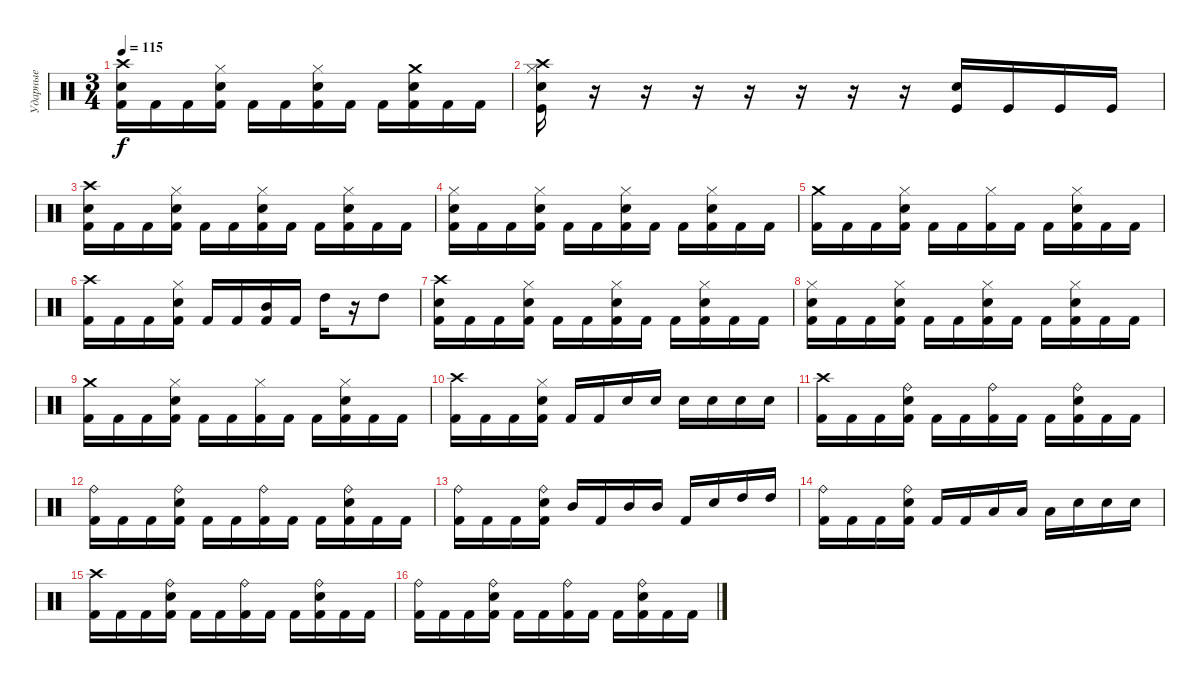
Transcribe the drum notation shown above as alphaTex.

\track ("Ударные" "Ударные") {instrument percussion}
\staff {score}
\articulation defaults
\ts (3 4)
\tempo 115
\clef neutral
\ks c
("Crash high (hit)" "Electric Snare (hit)" "Kick (hit) 2").16{dy f} "Kick (hit) 2".16 "Kick (hit) 2".16 ("Hi-Hat (closed)" "Electric Snare (hit)" "Kick (hit) 2").16 "Kick (hit) 2".16 "Kick (hit) 2".16 ("Hi-Hat (closed)" "Electric Snare (hit)" "Kick (hit) 2").16 "Kick (hit) 2".16 "Kick (hit) 2".16 ("Crash medium (hit)" "Electric Snare (hit)" "Kick (hit) 2").16 "Kick (hit) 2".16 "Kick (hit) 2".16 |
("Hi-Hat (closed)" "Crash high (hit)" "Electric Snare (hit)" "Kick (hit)").16 r.16 r.16 r.16 r.16 r.16 r.16 r.16 ("Electric Snare (hit)" "Kick (hit)").16 "Kick (hit)".16 "Kick (hit)".16 "Kick (hit)".16 |
("Crash high (hit)" "Electric Snare (hit)" "Kick (hit) 2").16 "Kick (hit) 2".16 "Kick (hit) 2".16 ("Hi-Hat (closed)" "Electric Snare (hit)" "Kick (hit) 2").16 "Kick (hit) 2".16 "Kick (hit) 2".16 ("Hi-Hat (closed)" "Electric Snare (hit)" "Kick (hit) 2").16 "Kick (hit) 2".16 "Kick (hit) 2".16 ("Hi-Hat (closed)" "Electric Snare (hit)" "Kick (hit) 2").16 "Kick (hit) 2".16 "Kick (hit) 2".16 |
("Hi-Hat (closed)" "Electric Snare (hit)" "Kick (hit) 2").16 "Kick (hit) 2".16 "Kick (hit) 2".16 ("Hi-Hat (closed)" "Electric Snare (hit)" "Kick (hit) 2").16 "Kick (hit) 2".16 "Kick (hit) 2".16 ("Hi-Hat (closed)" "Electric Snare (hit)" "Kick (hit) 2").16 "Kick (hit) 2".16 "Kick (hit) 2".16 ("Hi-Hat (closed)" "Electric Snare (hit)" "Kick (hit) 2").16 "Kick (hit) 2".16 "Kick (hit) 2".16 |
("Crash medium (hit)" "Kick (hit) 2").16 "Kick (hit) 2".16 "Kick (hit) 2".16 ("Hi-Hat (closed)" "Electric Snare (hit)" "Kick (hit) 2").16 "Kick (hit) 2".16 "Kick (hit) 2".16 ("Hi-Hat (closed)" "Kick (hit) 2").16 "Kick (hit) 2".16 "Kick (hit) 2".16 ("Hi-Hat (closed)" "Electric Snare (hit)" "Kick (hit) 2").16 "Kick (hit) 2".16 "Kick (hit) 2".16 |
("Crash high (hit)" "Kick (hit) 2").16 "Kick (hit) 2".16 "Kick (hit) 2".16 ("Hi-Hat (closed)" "Electric Snare (hit)" "Kick (hit) 2").16 "Kick (hit) 2".16 "Kick (hit) 2".16 ("Mid Tom (hit)" "Kick (hit) 2").16 "Kick (hit) 2".16 "High Tom (hit)".16 r.16 "High Tom (hit)".8 |
("Crash high (hit)" "Electric Snare (hit)" "Kick (hit) 2").16 "Kick (hit) 2".16 "Kick (hit) 2".16 ("Hi-Hat (closed)" "Electric Snare (hit)" "Kick (hit) 2").16 "Kick (hit) 2".16 "Kick (hit) 2".16 ("Hi-Hat (closed)" "Electric Snare (hit)" "Kick (hit) 2").16 "Kick (hit) 2".16 "Kick (hit) 2".16 ("Hi-Hat (closed)" "Electric Snare (hit)" "Kick (hit) 2").16 "Kick (hit) 2".16 "Kick (hit) 2".16 |
("Hi-Hat (closed)" "Electric Snare (hit)" "Kick (hit) 2").16 "Kick (hit) 2".16 "Kick (hit) 2".16 ("Hi-Hat (closed)" "Electric Snare (hit)" "Kick (hit) 2").16 "Kick (hit) 2".16 "Kick (hit) 2".16 ("Hi-Hat (closed)" "Electric Snare (hit)" "Kick (hit) 2").16 "Kick (hit) 2".16 "Kick (hit) 2".16 ("Hi-Hat (closed)" "Electric Snare (hit)" "Kick (hit) 2").16 "Kick (hit) 2".16 "Kick (hit) 2".16 |
("Crash medium (hit)" "Kick (hit) 2").16 "Kick (hit) 2".16 "Kick (hit) 2".16 ("Hi-Hat (closed)" "Electric Snare (hit)" "Kick (hit) 2").16 "Kick (hit) 2".16 "Kick (hit) 2".16 ("Hi-Hat (closed)" "Kick (hit) 2").16 "Kick (hit) 2".16 "Kick (hit) 2".16 ("Hi-Hat (closed)" "Electric Snare (hit)" "Kick (hit) 2").16 "Kick (hit) 2".16 "Kick (hit) 2".16 |
("Crash high (hit)" "Kick (hit) 2").16 "Kick (hit) 2".16 "Kick (hit) 2".16 ("Hi-Hat (closed)" "Electric Snare (hit)" "Kick (hit) 2").16 "Kick (hit) 2".16 "Kick (hit) 2".16 "Electric Snare (hit)".16 "Electric Snare (hit)".16 "Electric Snare (hit)".16 "Electric Snare (hit)".16 "Electric Snare (hit)".16 "Electric Snare (hit)".16 |
("Crash high (hit)" "Kick (hit) 2").16 "Kick (hit) 2".16 "Kick (hit) 2".16 ("Ride (bell)" "Electric Snare (hit)" "Kick (hit) 2").16 "Kick (hit) 2".16 "Kick (hit) 2".16 ("Ride (bell)" "Kick (hit) 2").16 "Kick (hit) 2".16 "Kick (hit) 2".16 ("Ride (bell)" "Electric Snare (hit)" "Kick (hit) 2").16 "Kick (hit) 2".16 "Kick (hit) 2".16 |
("Ride (bell)" "Kick (hit) 2").16 "Kick (hit) 2".16 "Kick (hit) 2".16 ("Ride (bell)" "Electric Snare (hit)" "Kick (hit) 2").16 "Kick (hit) 2".16 "Kick (hit) 2".16 ("Ride (bell)" "Kick (hit) 2").16 "Kick (hit) 2".16 "Kick (hit) 2".16 ("Ride (bell)" "Electric Snare (hit)" "Kick (hit) 2").16 "Kick (hit) 2".16 "Kick (hit) 2".16 |
("Ride (bell)" "Kick (hit) 2").16 "Kick (hit) 2".16 "Kick (hit) 2".16 ("Ride (bell)" "Electric Snare (hit)" "Kick (hit) 2").16 "Mid Tom (hit)".16 "Kick (hit) 2".16 "Mid Tom (hit)".16 "Mid Tom (hit)".16 "Kick (hit) 2".16 "Electric Snare (hit)".16 "High Tom (hit)".16 "High Tom (hit)".16 |
("Ride (bell)" "Kick (hit) 2").16 "Kick (hit) 2".16 "Kick (hit) 2".16 ("Ride (bell)" "Electric Snare (hit)" "Kick (hit) 2").16 "Kick (hit) 2".16 "Kick (hit) 2".16 "Low Tom (hit)".16 "Low Tom (hit)".16 "Low Tom (hit)".16 "Electric Snare (hit)".16 "Electric Snare (hit)".16 "Electric Snare (hit)".16 |
("Crash high (hit)" "Kick (hit) 2").16 "Kick (hit) 2".16 "Kick (hit) 2".16 ("Ride (bell)" "Electric Snare (hit)" "Kick (hit) 2").16 "Kick (hit) 2".16 "Kick (hit) 2".16 ("Ride (bell)" "Kick (hit) 2").16 "Kick (hit) 2".16 "Kick (hit) 2".16 ("Ride (bell)" "Electric Snare (hit)" "Kick (hit) 2").16 "Kick (hit) 2".16 "Kick (hit) 2".16 |
("Ride (bell)" "Kick (hit) 2").16 "Kick (hit) 2".16 "Kick (hit) 2".16 ("Ride (bell)" "Electric Snare (hit)" "Kick (hit) 2").16 "Kick (hit) 2".16 "Kick (hit) 2".16 ("Ride (bell)" "Kick (hit) 2").16 "Kick (hit) 2".16 "Kick (hit) 2".16 ("Ride (bell)" "Electric Snare (hit)" "Kick (hit) 2").16 "Kick (hit) 2".16 "Kick (hit) 2".16
